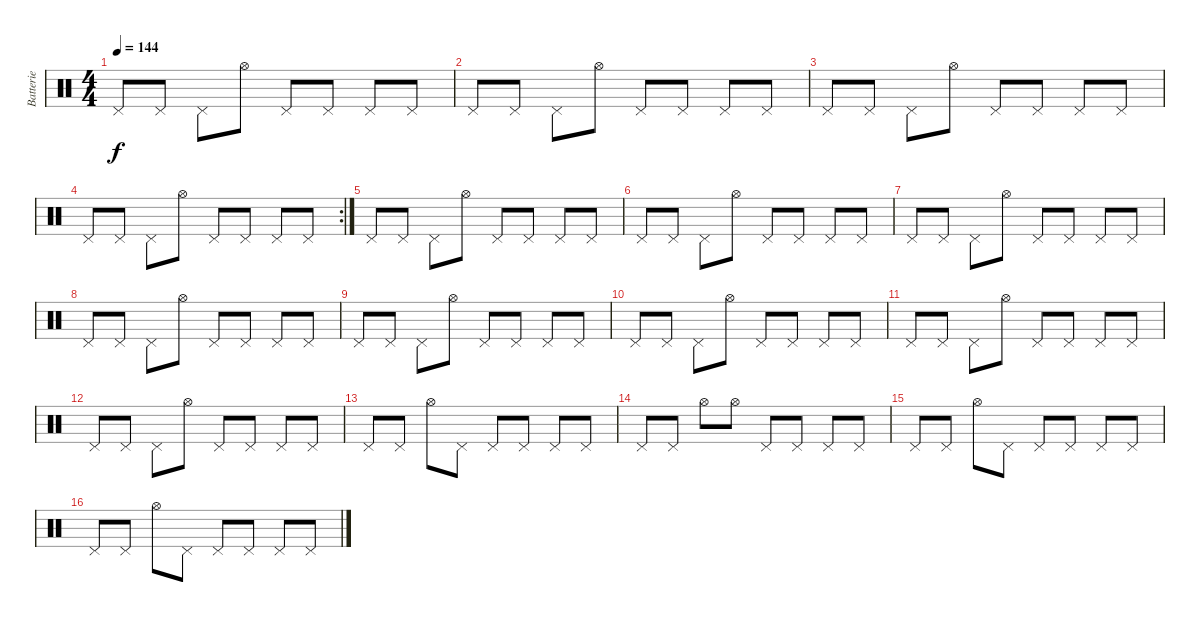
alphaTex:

\track ("Batterie" "Batterie") {instrument percussion}
\staff {score}
\articulation defaults
\ts (4 4)
\tempo 144
\clef neutral
\ks c "Pedal Hi-Hat (hit)".8{dy f} "Pedal Hi-Hat (hit)".8 "Pedal Hi-Hat (hit)".8 "Hi-Hat (open)".8 "Pedal Hi-Hat (hit)".8 "Pedal Hi-Hat (hit)".8 "Pedal Hi-Hat (hit)".8 "Pedal Hi-Hat (hit)".8
|
"Pedal Hi-Hat (hit)".8 "Pedal Hi-Hat (hit)".8 "Pedal Hi-Hat (hit)".8 "Hi-Hat (open)".8 "Pedal Hi-Hat (hit)".8 "Pedal Hi-Hat (hit)".8 "Pedal Hi-Hat (hit)".8 "Pedal Hi-Hat (hit)".8 |
"Pedal Hi-Hat (hit)".8 "Pedal Hi-Hat (hit)".8 "Pedal Hi-Hat (hit)".8 "Hi-Hat (open)".8 "Pedal Hi-Hat (hit)".8 "Pedal Hi-Hat (hit)".8 "Pedal Hi-Hat (hit)".8 "Pedal Hi-Hat (hit)".8 |
\rc 2 "Pedal Hi-Hat (hit)".8 "Pedal Hi-Hat (hit)".8 "Pedal Hi-Hat (hit)".8 "Hi-Hat (open)".8 "Pedal Hi-Hat (hit)".8 "Pedal Hi-Hat (hit)".8 "Pedal Hi-Hat (hit)".8 "Pedal Hi-Hat (hit)".8
|
"Pedal Hi-Hat (hit)".8 "Pedal Hi-Hat (hit)".8 "Pedal Hi-Hat (hit)".8 "Hi-Hat (open)".8 "Pedal Hi-Hat (hit)".8 "Pedal Hi-Hat (hit)".8 "Pedal Hi-Hat (hit)".8 "Pedal Hi-Hat (hit)".8 |
"Pedal Hi-Hat (hit)".8 "Pedal Hi-Hat (hit)".8 "Pedal Hi-Hat (hit)".8 "Hi-Hat (open)".8 "Pedal Hi-Hat (hit)".8 "Pedal Hi-Hat (hit)".8 "Pedal Hi-Hat (hit)".8 "Pedal Hi-Hat (hit)".8 |
"Pedal Hi-Hat (hit)".8 "Pedal Hi-Hat (hit)".8 "Pedal Hi-Hat (hit)".8 "Hi-Hat (open)".8 "Pedal Hi-Hat (hit)".8 "Pedal Hi-Hat (hit)".8 "Pedal Hi-Hat (hit)".8 "Pedal Hi-Hat (hit)".8 |
"Pedal Hi-Hat (hit)".8 "Pedal Hi-Hat (hit)".8 "Pedal Hi-Hat (hit)".8 "Hi-Hat (open)".8 "Pedal Hi-Hat (hit)".8 "Pedal Hi-Hat (hit)".8 "Pedal Hi-Hat (hit)".8 "Pedal Hi-Hat (hit)".8 |
"Pedal Hi-Hat (hit)".8 "Pedal Hi-Hat (hit)".8 "Pedal Hi-Hat (hit)".8 "Hi-Hat (open)".8 "Pedal Hi-Hat (hit)".8 "Pedal Hi-Hat (hit)".8 "Pedal Hi-Hat (hit)".8 "Pedal Hi-Hat (hit)".8 |
"Pedal Hi-Hat (hit)".8 "Pedal Hi-Hat (hit)".8 "Pedal Hi-Hat (hit)".8 "Hi-Hat (open)".8 "Pedal Hi-Hat (hit)".8 "Pedal Hi-Hat (hit)".8 "Pedal Hi-Hat (hit)".8 "Pedal Hi-Hat (hit)".8 |
"Pedal Hi-Hat (hit)".8 "Pedal Hi-Hat (hit)".8 "Pedal Hi-Hat (hit)".8 "Hi-Hat (open)".8 "Pedal Hi-Hat (hit)".8 "Pedal Hi-Hat (hit)".8 "Pedal Hi-Hat (hit)".8 "Pedal Hi-Hat (hit)".8 |
"Pedal Hi-Hat (hit)".8 "Pedal Hi-Hat (hit)".8 "Pedal Hi-Hat (hit)".8 "Hi-Hat (open)".8 "Pedal Hi-Hat (hit)".8 "Pedal Hi-Hat (hit)".8 "Pedal Hi-Hat (hit)".8 "Pedal Hi-Hat (hit)".8 |
"Pedal Hi-Hat (hit)".8 "Pedal Hi-Hat (hit)".8 "Hi-Hat (open)".8 "Pedal Hi-Hat (hit)".8 "Pedal Hi-Hat (hit)".8 "Pedal Hi-Hat (hit)".8 "Pedal Hi-Hat (hit)".8 "Pedal Hi-Hat (hit)".8 |
"Pedal Hi-Hat (hit)".8 "Pedal Hi-Hat (hit)".8 "Hi-Hat (open)".8 "Hi-Hat (open)".8 "Pedal Hi-Hat (hit)".8 "Pedal Hi-Hat (hit)".8 "Pedal Hi-Hat (hit)".8 "Pedal Hi-Hat (hit)".8 |
"Pedal Hi-Hat (hit)".8 "Pedal Hi-Hat (hit)".8 "Hi-Hat (open)".8 "Pedal Hi-Hat (hit)".8 "Pedal Hi-Hat (hit)".8 "Pedal Hi-Hat (hit)".8 "Pedal Hi-Hat (hit)".8 "Pedal Hi-Hat (hit)".8 |
"Pedal Hi-Hat (hit)".8 "Pedal Hi-Hat (hit)".8 "Hi-Hat (open)".8 "Pedal Hi-Hat (hit)".8 "Pedal Hi-Hat (hit)".8 "Pedal Hi-Hat (hit)".8 "Pedal Hi-Hat (hit)".8 "Pedal Hi-Hat (hit)".8
